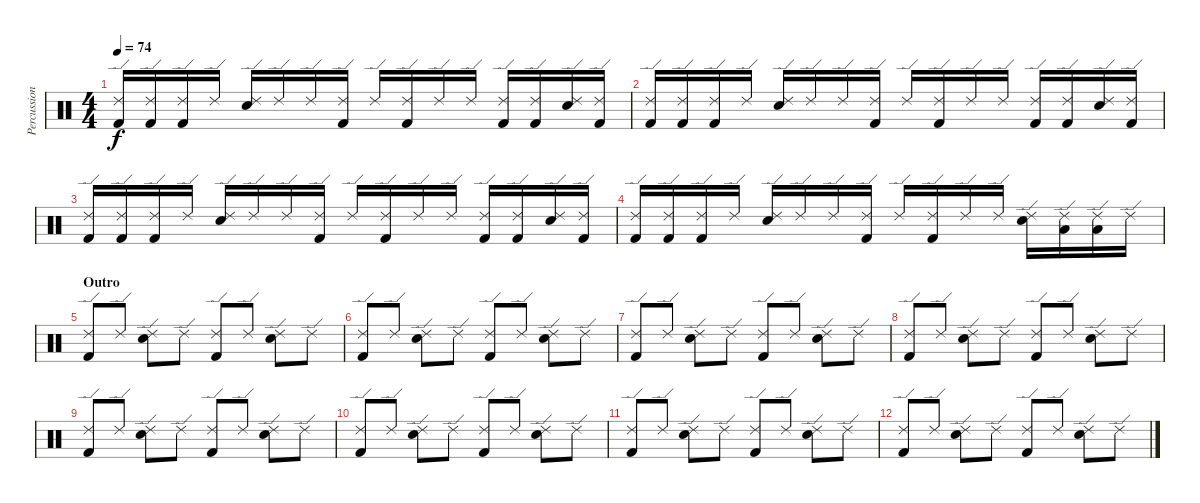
\track ("Percussion" "Percussion") {instrument percussion}
\staff {score}
\articulation defaults
\ts (4 4)
\tempo 74
\clef neutral
\ks c
("Ride (edge) 2" "Kick (hit) 2").16{dy f} ("Ride (edge) 2" "Kick (hit) 2").16 ("Ride (edge) 2" "Kick (hit) 2").16 "Ride (edge) 2".16 ("Ride (edge) 2" "Electric Snare (hit)").16 "Ride (edge) 2".16 "Ride (edge) 2".16 ("Ride (edge) 2" "Kick (hit) 2").16 "Ride (edge) 2".16 ("Ride (edge) 2" "Kick (hit) 2").16 "Ride (edge) 2".16 "Ride (edge) 2".16 ("Ride (edge) 2" "Kick (hit) 2").16 ("Ride (edge) 2" "Kick (hit) 2").16 ("Ride (edge) 2" "Electric Snare (hit)").16 ("Ride (edge) 2" "Kick (hit) 2").16 |
("Ride (edge) 2" "Kick (hit) 2").16 ("Ride (edge) 2" "Kick (hit) 2").16 ("Ride (edge) 2" "Kick (hit) 2").16 "Ride (edge) 2".16 ("Ride (edge) 2" "Electric Snare (hit)").16 "Ride (edge) 2".16 "Ride (edge) 2".16 ("Ride (edge) 2" "Kick (hit) 2").16 "Ride (edge) 2".16 ("Ride (edge) 2" "Kick (hit) 2").16 "Ride (edge) 2".16 "Ride (edge) 2".16 ("Ride (edge) 2" "Kick (hit) 2").16 ("Ride (edge) 2" "Kick (hit) 2").16 ("Ride (edge) 2" "Electric Snare (hit)").16 ("Ride (edge) 2" "Kick (hit) 2").16 |
("Ride (edge) 2" "Kick (hit) 2").16 ("Ride (edge) 2" "Kick (hit) 2").16 ("Ride (edge) 2" "Kick (hit) 2").16 "Ride (edge) 2".16 ("Ride (edge) 2" "Electric Snare (hit)").16 "Ride (edge) 2".16 "Ride (edge) 2".16 ("Ride (edge) 2" "Kick (hit) 2").16 "Ride (edge) 2".16 ("Ride (edge) 2" "Kick (hit) 2").16 "Ride (edge) 2".16 "Ride (edge) 2".16 ("Ride (edge) 2" "Kick (hit) 2").16 ("Ride (edge) 2" "Kick (hit) 2").16 ("Ride (edge) 2" "Electric Snare (hit)").16 ("Ride (edge) 2" "Kick (hit) 2").16 |
("Ride (edge) 2" "Kick (hit) 2").16 ("Ride (edge) 2" "Kick (hit) 2").16 ("Ride (edge) 2" "Kick (hit) 2").16 "Ride (edge) 2".16 ("Ride (edge) 2" "Electric Snare (hit)").16 "Ride (edge) 2".16 "Ride (edge) 2".16 ("Ride (edge) 2" "Kick (hit) 2").16 "Ride (edge) 2".16 ("Ride (edge) 2" "Kick (hit) 2").16 "Ride (edge) 2".16 "Ride (edge) 2".16 ("Ride (edge) 2" "Electric Snare (hit)").16 ("Ride (edge) 2" "Low Tom (hit)").16 ("Ride (edge) 2" "Low Floor Tom (hit)").16 "Ride (edge) 2".16 |
\section ("" "Outro")
("Ride (edge) 2" "Kick (hit) 2").8 "Ride (edge) 2".8 ("Ride (edge) 2" "Electric Snare (hit)").8 "Ride (edge) 2".8 ("Ride (edge) 2" "Kick (hit) 2").8 "Ride (edge) 2".8 ("Ride (edge) 2" "Electric Snare (hit)").8 "Ride (edge) 2".8 |
("Ride (edge) 2" "Kick (hit) 2").8 "Ride (edge) 2".8 ("Ride (edge) 2" "Electric Snare (hit)").8 "Ride (edge) 2".8 ("Ride (edge) 2" "Kick (hit) 2").8 "Ride (edge) 2".8 ("Ride (edge) 2" "Electric Snare (hit)").8 "Ride (edge) 2".8 |
("Ride (edge) 2" "Kick (hit) 2").8 "Ride (edge) 2".8 ("Ride (edge) 2" "Electric Snare (hit)").8 "Ride (edge) 2".8 ("Ride (edge) 2" "Kick (hit) 2").8 "Ride (edge) 2".8 ("Ride (edge) 2" "Electric Snare (hit)").8 "Ride (edge) 2".8 |
("Ride (edge) 2" "Kick (hit) 2").8 "Ride (edge) 2".8 ("Ride (edge) 2" "Electric Snare (hit)").8 "Ride (edge) 2".8 ("Ride (edge) 2" "Kick (hit) 2").8 "Ride (edge) 2".8 ("Ride (edge) 2" "Electric Snare (hit)").8 "Ride (edge) 2".8 |
("Ride (edge) 2" "Kick (hit) 2").8 "Ride (edge) 2".8 ("Ride (edge) 2" "Electric Snare (hit)").8 "Ride (edge) 2".8 ("Ride (edge) 2" "Kick (hit) 2").8 "Ride (edge) 2".8 ("Ride (edge) 2" "Electric Snare (hit)").8 "Ride (edge) 2".8 |
("Ride (edge) 2" "Kick (hit) 2").8 "Ride (edge) 2".8 ("Ride (edge) 2" "Electric Snare (hit)").8 "Ride (edge) 2".8 ("Ride (edge) 2" "Kick (hit) 2").8 "Ride (edge) 2".8 ("Ride (edge) 2" "Electric Snare (hit)").8 "Ride (edge) 2".8 |
("Ride (edge) 2" "Kick (hit) 2").8 "Ride (edge) 2".8 ("Ride (edge) 2" "Electric Snare (hit)").8 "Ride (edge) 2".8 ("Ride (edge) 2" "Kick (hit) 2").8 "Ride (edge) 2".8 ("Ride (edge) 2" "Electric Snare (hit)").8 "Ride (edge) 2".8 |
("Ride (edge) 2" "Kick (hit) 2").8 "Ride (edge) 2".8 ("Ride (edge) 2" "Electric Snare (hit)").8 "Ride (edge) 2".8 ("Ride (edge) 2" "Kick (hit) 2").8 "Ride (edge) 2".8 ("Ride (edge) 2" "Electric Snare (hit)").8 "Ride (edge) 2".8
